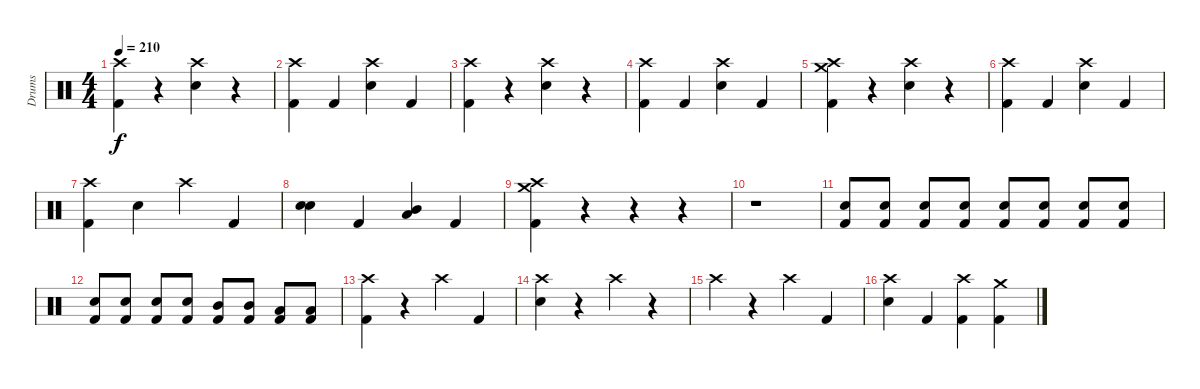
\track ("Drums" "Drums") {instrument percussion}
\staff {score}
\articulation defaults
\ts (4 4)
\tempo 210
\clef neutral
\ks c
("Crash high (hit)" "Kick (hit) 2").4{dy f} r.4 ("Crash high (hit)" "Electric Snare (hit)").4 r.4 |
("Crash high (hit)" "Kick (hit) 2").4 "Kick (hit) 2".4 ("Crash high (hit)" "Electric Snare (hit)").4 "Kick (hit) 2".4 |
("Crash high (hit)" "Kick (hit) 2").4 r.4 ("Crash high (hit)" "Electric Snare (hit)").4 r.4 |
("Crash high (hit)" "Kick (hit) 2").4 "Kick (hit) 2".4 ("Crash high (hit)" "Electric Snare (hit)").4 "Kick (hit) 2".4 |
("Crash high (hit)" "Crash medium (hit)" "Kick (hit) 2").4 r.4 ("Crash high (hit)" "Electric Snare (hit)").4 r.4 |
("Crash high (hit)" "Kick (hit) 2").4 "Kick (hit) 2".4 ("Crash high (hit)" "Electric Snare (hit)").4 "Kick (hit) 2".4 |
("Crash high (hit)" "Kick (hit) 2").4 "Electric Snare (hit)".4 "Crash high (hit)".4 "Kick (hit) 2".4 |
("Electric Snare (hit)" "Electric Snare (hit)").4 "Kick (hit) 2".4 ("Mid Tom (hit)" "Low Tom (hit)").4 "Kick (hit) 2".4 |
("Crash high (hit)" "Crash medium (hit)" "Kick (hit) 2").4 r.4 r.4 r.4 |
r.1 |
("Electric Snare (hit)" "Kick (hit) 2").8 ("Electric Snare (hit)" "Kick (hit) 2").8 ("Electric Snare (hit)" "Kick (hit) 2").8 ("Electric Snare (hit)" "Kick (hit) 2").8 ("Electric Snare (hit)" "Kick (hit) 2").8 ("Electric Snare (hit)" "Kick (hit) 2").8 ("Electric Snare (hit)" "Kick (hit) 2").8 ("Electric Snare (hit)" "Kick (hit) 2").8 |
("Electric Snare (hit)" "Kick (hit) 2").8 ("Electric Snare (hit)" "Kick (hit) 2").8 ("Electric Snare (hit)" "Kick (hit) 2").8 ("Electric Snare (hit)" "Kick (hit) 2").8 ("Mid Tom (hit)" "Kick (hit) 2").8 ("Mid Tom (hit)" "Kick (hit) 2").8 ("Low Tom (hit)" "Kick (hit) 2").8 ("Low Tom (hit)" "Kick (hit) 2").8 |
("Crash high (hit)" "Kick (hit) 2").4 r.4 "Crash high (hit)".4 "Kick (hit) 2".4 |
("Crash high (hit)" "Electric Snare (hit)").4 r.4 "Crash high (hit)".4 r.4 |
"Crash high (hit)".4 r.4 "Crash high (hit)".4 "Kick (hit) 2".4 |
("Crash high (hit)" "Electric Snare (hit)").4 "Kick (hit) 2".4 ("Crash high (hit)" "Kick (hit) 2").4 ("Crash medium (hit)" "Kick (hit) 2").4
